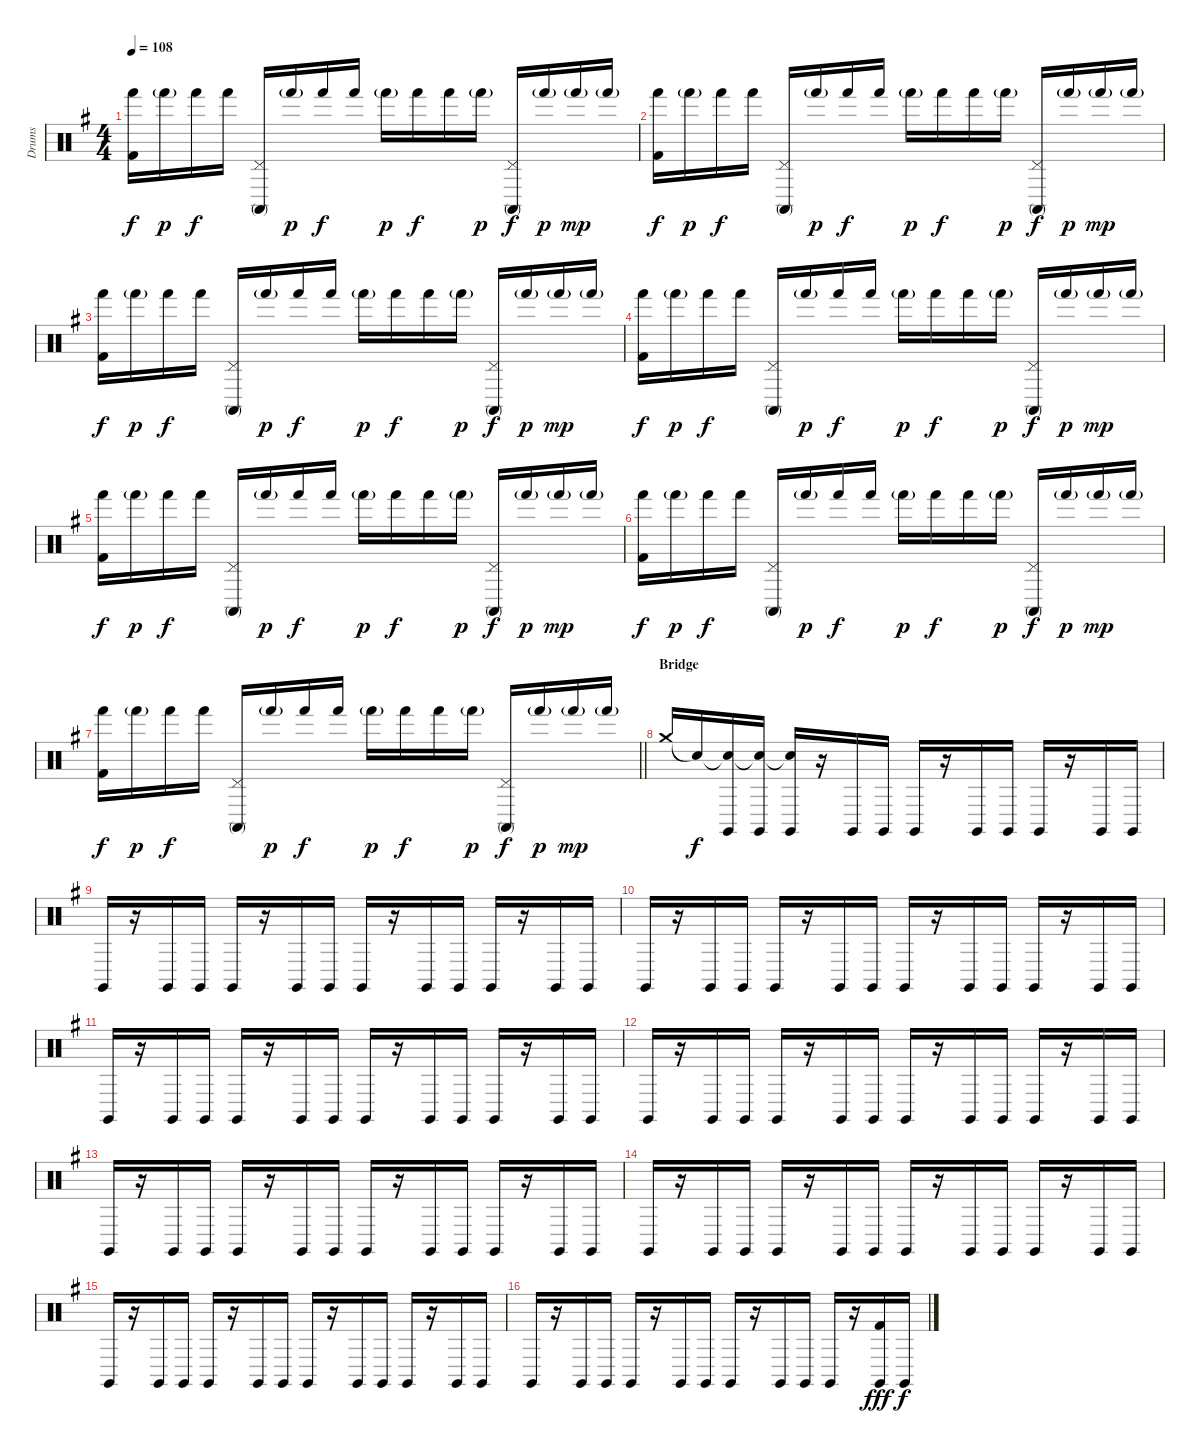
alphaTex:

\track ("Drums" "Drums") {instrument percussion}
\staff {score}
\articulation defaults
\ts (4 4)
\tempo 108
\clef neutral
\ks eminor
("Hand (hit)" "Kick (hit) 2").16{dy f} "Hand (hit)"{g}.16{dy p} "Hand (hit)".16{dy f} "Hand (hit)".16 ("Pedal Hi-Hat (hit)" "Conga high (mute)").16 "Hand (hit)"{g}.16{dy p} "Hand (hit)".16{dy f} "Hand (hit)".16 "Hand (hit)"{g}.16{dy p} "Hand (hit)".16{dy f} "Hand (hit)".16 "Hand (hit)"{g}.16{dy p} ("Pedal Hi-Hat (hit)" "Conga high (mute)").16{dy f} "Hand (hit)"{g}.16{dy p} "Hand (hit)"{g}.16{dy mp} "Hand (hit)"{g}.16 |
("Hand (hit)" "Kick (hit) 2").16{dy f} "Hand (hit)"{g}.16{dy p} "Hand (hit)".16{dy f} "Hand (hit)".16 ("Pedal Hi-Hat (hit)" "Conga high (mute)").16 "Hand (hit)"{g}.16{dy p} "Hand (hit)".16{dy f} "Hand (hit)".16 "Hand (hit)"{g}.16{dy p} "Hand (hit)".16{dy f} "Hand (hit)".16 "Hand (hit)"{g}.16{dy p} ("Pedal Hi-Hat (hit)" "Conga high (mute)").16{dy f} "Hand (hit)"{g}.16{dy p} "Hand (hit)"{g}.16{dy mp} "Hand (hit)"{g}.16 |
("Hand (hit)" "Kick (hit) 2").16{dy f} "Hand (hit)"{g}.16{dy p} "Hand (hit)".16{dy f} "Hand (hit)".16 ("Pedal Hi-Hat (hit)" "Conga high (mute)").16 "Hand (hit)"{g}.16{dy p} "Hand (hit)".16{dy f} "Hand (hit)".16 "Hand (hit)"{g}.16{dy p} "Hand (hit)".16{dy f} "Hand (hit)".16 "Hand (hit)"{g}.16{dy p} ("Pedal Hi-Hat (hit)" "Conga high (mute)").16{dy f} "Hand (hit)"{g}.16{dy p} "Hand (hit)"{g}.16{dy mp} "Hand (hit)"{g}.16 |
("Hand (hit)" "Kick (hit) 2").16{dy f} "Hand (hit)"{g}.16{dy p} "Hand (hit)".16{dy f} "Hand (hit)".16 ("Pedal Hi-Hat (hit)" "Conga high (mute)").16 "Hand (hit)"{g}.16{dy p} "Hand (hit)".16{dy f} "Hand (hit)".16 "Hand (hit)"{g}.16{dy p} "Hand (hit)".16{dy f} "Hand (hit)".16 "Hand (hit)"{g}.16{dy p} ("Pedal Hi-Hat (hit)" "Conga high (mute)").16{dy f} "Hand (hit)"{g}.16{dy p} "Hand (hit)"{g}.16{dy mp} "Hand (hit)"{g}.16 |
("Hand (hit)" "Kick (hit) 2").16{dy f} "Hand (hit)"{g}.16{dy p} "Hand (hit)".16{dy f} "Hand (hit)".16 ("Pedal Hi-Hat (hit)" "Conga high (mute)").16 "Hand (hit)"{g}.16{dy p} "Hand (hit)".16{dy f} "Hand (hit)".16 "Hand (hit)"{g}.16{dy p} "Hand (hit)".16{dy f} "Hand (hit)".16 "Hand (hit)"{g}.16{dy p} ("Pedal Hi-Hat (hit)" "Conga high (mute)").16{dy f} "Hand (hit)"{g}.16{dy p} "Hand (hit)"{g}.16{dy mp} "Hand (hit)"{g}.16 |
("Hand (hit)" "Kick (hit) 2").16{dy f} "Hand (hit)"{g}.16{dy p} "Hand (hit)".16{dy f} "Hand (hit)".16 ("Pedal Hi-Hat (hit)" "Conga high (mute)").16 "Hand (hit)"{g}.16{dy p} "Hand (hit)".16{dy f} "Hand (hit)".16 "Hand (hit)"{g}.16{dy p} "Hand (hit)".16{dy f} "Hand (hit)".16 "Hand (hit)"{g}.16{dy p} ("Pedal Hi-Hat (hit)" "Conga high (mute)").16{dy f} "Hand (hit)"{g}.16{dy p} "Hand (hit)"{g}.16{dy mp} "Hand (hit)"{g}.16 |
\barLineRight lightlight
("Hand (hit)" "Kick (hit) 2").16{dy f} "Hand (hit)"{g}.16{dy p} "Hand (hit)".16{dy f} "Hand (hit)".16 ("Pedal Hi-Hat (hit)" "Conga high (mute)").16 "Hand (hit)"{g}.16{dy p} "Hand (hit)".16{dy f} "Hand (hit)".16 "Hand (hit)"{g}.16{dy p} "Hand (hit)".16{dy f} "Hand (hit)".16 "Hand (hit)"{g}.16{dy p} ("Pedal Hi-Hat (hit)" "Conga high (mute)").16{dy f} "Hand (hit)"{g}.16{dy p} "Hand (hit)"{g}.16{dy mp} "Hand (hit)"{g}.16 |
\section ("" "Bridge")
"Crash medium (hit)".16 "Snare (hit)"{t}.16{dy f} ("Snare (hit)"{t} "Claves (hit)").16 ("Snare (hit)"{t} "Claves (hit)").16 ("Snare (hit)"{t} "Claves (hit)").16 r.16 "Claves (hit)".16 "Claves (hit)".16 "Claves (hit)".16 r.16 "Claves (hit)".16 "Claves (hit)".16 "Claves (hit)".16 r.16 "Claves (hit)".16 "Claves (hit)".16 |
"Claves (hit)".16 r.16 "Claves (hit)".16 "Claves (hit)".16 "Claves (hit)".16 r.16 "Claves (hit)".16 "Claves (hit)".16 "Claves (hit)".16 r.16 "Claves (hit)".16 "Claves (hit)".16 "Claves (hit)".16 r.16 "Claves (hit)".16 "Claves (hit)".16 |
"Claves (hit)".16 r.16 "Claves (hit)".16 "Claves (hit)".16 "Claves (hit)".16 r.16 "Claves (hit)".16 "Claves (hit)".16 "Claves (hit)".16 r.16 "Claves (hit)".16 "Claves (hit)".16 "Claves (hit)".16 r.16 "Claves (hit)".16 "Claves (hit)".16 |
"Claves (hit)".16 r.16 "Claves (hit)".16 "Claves (hit)".16 "Claves (hit)".16 r.16 "Claves (hit)".16 "Claves (hit)".16 "Claves (hit)".16 r.16 "Claves (hit)".16 "Claves (hit)".16 "Claves (hit)".16 r.16 "Claves (hit)".16 "Claves (hit)".16 |
"Claves (hit)".16 r.16 "Claves (hit)".16 "Claves (hit)".16 "Claves (hit)".16 r.16 "Claves (hit)".16 "Claves (hit)".16 "Claves (hit)".16 r.16 "Claves (hit)".16 "Claves (hit)".16 "Claves (hit)".16 r.16 "Claves (hit)".16 "Claves (hit)".16 |
"Claves (hit)".16 r.16 "Claves (hit)".16 "Claves (hit)".16 "Claves (hit)".16 r.16 "Claves (hit)".16 "Claves (hit)".16 "Claves (hit)".16 r.16 "Claves (hit)".16 "Claves (hit)".16 "Claves (hit)".16 r.16 "Claves (hit)".16 "Claves (hit)".16 |
"Claves (hit)".16 r.16 "Claves (hit)".16 "Claves (hit)".16 "Claves (hit)".16 r.16 "Claves (hit)".16 "Claves (hit)".16 "Claves (hit)".16 r.16 "Claves (hit)".16 "Claves (hit)".16 "Claves (hit)".16 r.16 "Claves (hit)".16 "Claves (hit)".16 |
"Claves (hit)".16 r.16 "Claves (hit)".16 "Claves (hit)".16 "Claves (hit)".16 r.16 "Claves (hit)".16 "Claves (hit)".16 "Claves (hit)".16 r.16 "Claves (hit)".16 "Claves (hit)".16 "Claves (hit)".16 r.16 "Claves (hit)".16 "Claves (hit)".16 |
"Claves (hit)".16 r.16 "Claves (hit)".16 "Claves (hit)".16 "Claves (hit)".16 r.16 "Claves (hit)".16 "Claves (hit)".16 "Claves (hit)".16 r.16 "Claves (hit)".16 "Claves (hit)".16 "Claves (hit)".16 r.16 ("Claves (hit)" "Kick (hit) 2").16{dy fff} "Claves (hit)".16{dy f}
